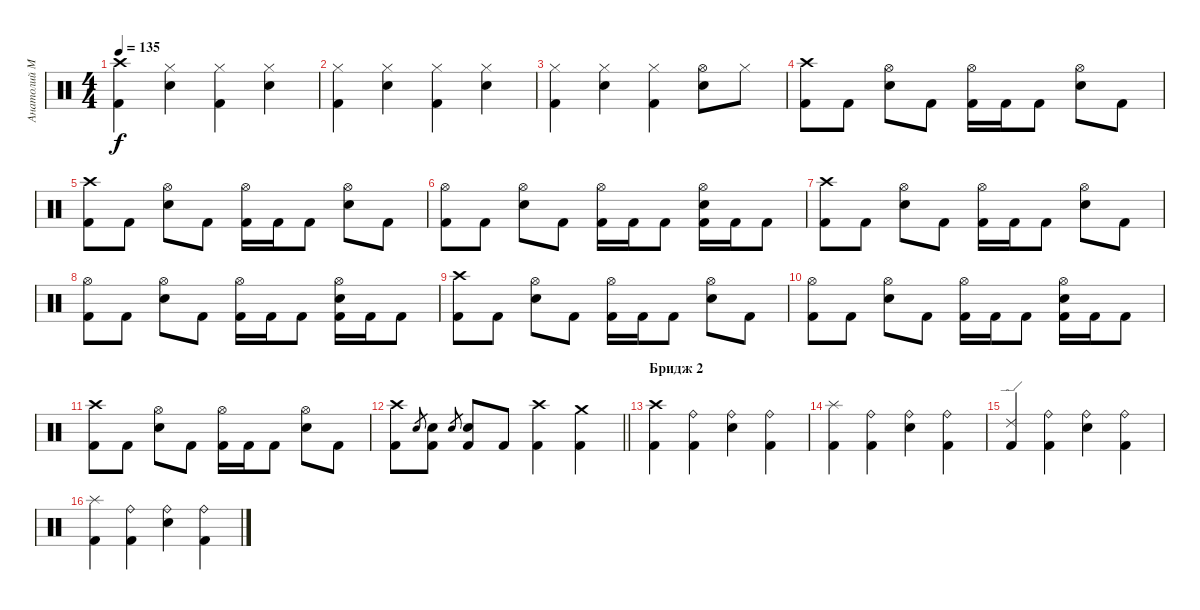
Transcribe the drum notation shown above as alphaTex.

\track ("Анатолий Малиновский" "Анатолий М") {instrument percussion}
\staff {score}
\articulation defaults
\ts (4 4)
\tempo 135
\clef neutral
\ks c
("Crash high (hit)" "Kick (hit) 2").4{dy f} ("Hi-Hat (closed)" "Electric Snare (hit)").4 ("Hi-Hat (closed)" "Kick (hit) 2").4 ("Hi-Hat (closed)" "Electric Snare (hit)").4 |
("Hi-Hat (closed)" "Kick (hit) 2").4 ("Hi-Hat (closed)" "Electric Snare (hit)").4 ("Hi-Hat (closed)" "Kick (hit) 2").4 ("Hi-Hat (closed)" "Electric Snare (hit)").4 |
("Hi-Hat (closed)" "Kick (hit) 2").4 ("Hi-Hat (closed)" "Electric Snare (hit)").4 ("Hi-Hat (closed)" "Kick (hit) 2").4 ("Hi-Hat (open)" "Electric Snare (hit)").8 "Hi-Hat (closed)".8 |
("Crash high (hit)" "Kick (hit) 2").8 "Kick (hit) 2".8 ("Hi-Hat (open)" "Electric Snare (hit)").8 "Kick (hit) 2".8 ("Hi-Hat (open)" "Kick (hit) 2").16 "Kick (hit) 2".16 "Kick (hit) 2".8 ("Hi-Hat (open)" "Electric Snare (hit)").8 "Kick (hit) 2".8 |
("Crash high (hit)" "Kick (hit) 2").8 "Kick (hit) 2".8 ("Hi-Hat (open)" "Electric Snare (hit)").8 "Kick (hit) 2".8 ("Hi-Hat (open)" "Kick (hit) 2").16 "Kick (hit) 2".16 "Kick (hit) 2".8 ("Hi-Hat (open)" "Electric Snare (hit)").8 "Kick (hit) 2".8 |
("Hi-Hat (open)" "Kick (hit) 2").8 "Kick (hit) 2".8 ("Hi-Hat (open)" "Electric Snare (hit)").8 "Kick (hit) 2".8 ("Hi-Hat (open)" "Kick (hit) 2").16 "Kick (hit) 2".16 "Kick (hit) 2".8 ("Hi-Hat (open)" "Electric Snare (hit)" "Kick (hit) 2").16 "Kick (hit) 2".16 "Kick (hit) 2".8 |
("Crash high (hit)" "Kick (hit) 2").8 "Kick (hit) 2".8 ("Hi-Hat (open)" "Electric Snare (hit)").8 "Kick (hit) 2".8 ("Hi-Hat (open)" "Kick (hit) 2").16 "Kick (hit) 2".16 "Kick (hit) 2".8 ("Hi-Hat (open)" "Electric Snare (hit)").8 "Kick (hit) 2".8 |
("Hi-Hat (open)" "Kick (hit) 2").8 "Kick (hit) 2".8 ("Hi-Hat (open)" "Electric Snare (hit)").8 "Kick (hit) 2".8 ("Hi-Hat (open)" "Kick (hit) 2").16 "Kick (hit) 2".16 "Kick (hit) 2".8 ("Hi-Hat (open)" "Electric Snare (hit)" "Kick (hit) 2").16 "Kick (hit) 2".16 "Kick (hit) 2".8 |
("Crash high (hit)" "Kick (hit) 2").8 "Kick (hit) 2".8 ("Hi-Hat (open)" "Electric Snare (hit)").8 "Kick (hit) 2".8 ("Hi-Hat (open)" "Kick (hit) 2").16 "Kick (hit) 2".16 "Kick (hit) 2".8 ("Hi-Hat (open)" "Electric Snare (hit)").8 "Kick (hit) 2".8 |
("Hi-Hat (open)" "Kick (hit) 2").8 "Kick (hit) 2".8 ("Hi-Hat (open)" "Electric Snare (hit)").8 "Kick (hit) 2".8 ("Hi-Hat (open)" "Kick (hit) 2").16 "Kick (hit) 2".16 "Kick (hit) 2".8 ("Hi-Hat (open)" "Electric Snare (hit)" "Kick (hit) 2").16 "Kick (hit) 2".16 "Kick (hit) 2".8 |
("Crash high (hit)" "Kick (hit) 2").8 "Kick (hit) 2".8 ("Hi-Hat (open)" "Electric Snare (hit)").8 "Kick (hit) 2".8 ("Hi-Hat (open)" "Kick (hit) 2").16 "Kick (hit) 2".16 "Kick (hit) 2".8 ("Hi-Hat (open)" "Electric Snare (hit)").8 "Kick (hit) 2".8 |
\barLineRight lightlight
("Crash high (hit)" "Kick (hit) 2").8 "Electric Snare (hit)".8{gr} ("Electric Snare (hit)" "Kick (hit) 2").8 "Electric Snare (hit)".8{gr} ("Electric Snare (hit)" "Kick (hit) 2").8 "Kick (hit) 2".8 ("Crash high (hit)" "Kick (hit) 2").4 ("Crash medium (hit)" "Kick (hit) 2").4 |
\section ("" "Бридж 2")
("Crash high (hit)" "Kick (hit) 2").4 ("Ride (bell)" "Kick (hit) 2").4 ("Ride (bell)" "Electric Snare (hit)").4 ("Ride (bell)" "Kick (hit) 2").4 |
("Splash (hit)" "Kick (hit) 2").4 ("Ride (bell)" "Kick (hit) 2").4 ("Ride (bell)" "Electric Snare (hit)").4 ("Ride (bell)" "Kick (hit) 2").4 |
("Ride (edge) 2" "Kick (hit) 2").4 ("Ride (bell)" "Kick (hit) 2").4 ("Ride (bell)" "Electric Snare (hit)").4 ("Ride (bell)" "Kick (hit) 2").4 |
("Splash (hit)" "Kick (hit) 2").4 ("Ride (bell)" "Kick (hit) 2").4 ("Ride (bell)" "Electric Snare (hit)").4 ("Ride (bell)" "Kick (hit) 2").4
